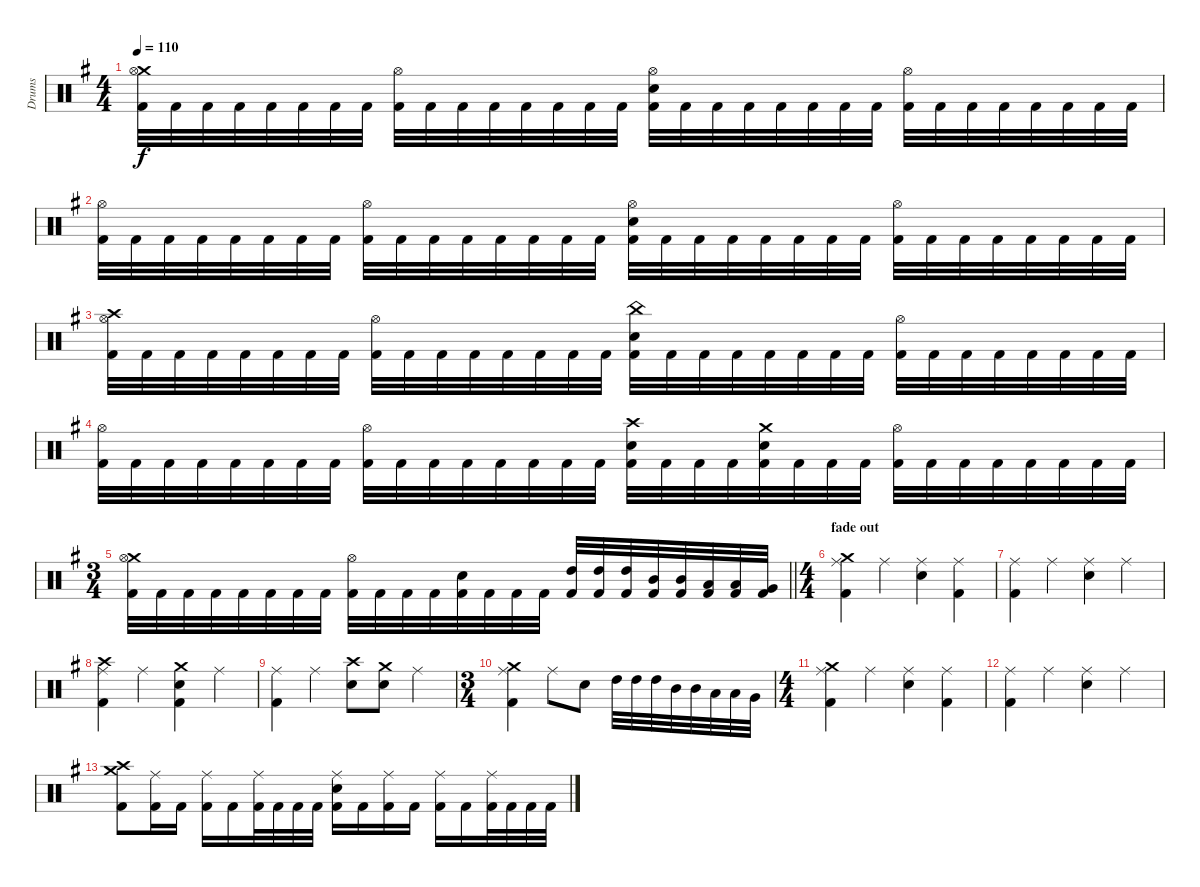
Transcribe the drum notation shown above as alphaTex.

\track ("Drums" "Drums") {instrument percussion}
\staff {score}
\articulation defaults
\ts (4 4)
\tempo 110
\clef neutral
\ks eminor
("Crash medium (hit)" "Hi-Hat (open)" "Kick (hit) 2").32{dy f} "Kick (hit) 2".32 "Kick (hit) 2".32 "Kick (hit) 2".32 "Kick (hit) 2".32 "Kick (hit) 2".32 "Kick (hit) 2".32 "Kick (hit) 2".32 ("Hi-Hat (open)" "Kick (hit) 2").32 "Kick (hit) 2".32 "Kick (hit) 2".32 "Kick (hit) 2".32 "Kick (hit) 2".32 "Kick (hit) 2".32 "Kick (hit) 2".32 "Kick (hit) 2".32 ("Hi-Hat (open)" "Electric Snare (hit)" "Kick (hit) 2").32 "Kick (hit) 2".32 "Kick (hit) 2".32 "Kick (hit) 2".32 "Kick (hit) 2".32 "Kick (hit) 2".32 "Kick (hit) 2".32 "Kick (hit) 2".32 ("Hi-Hat (open)" "Kick (hit) 2").32 "Kick (hit) 2".32 "Kick (hit) 2".32 "Kick (hit) 2".32 "Kick (hit) 2".32 "Kick (hit) 2".32 "Kick (hit) 2".32 "Kick (hit) 2".32 |
("Hi-Hat (open)" "Kick (hit) 2").32 "Kick (hit) 2".32 "Kick (hit) 2".32 "Kick (hit) 2".32 "Kick (hit) 2".32 "Kick (hit) 2".32 "Kick (hit) 2".32 "Kick (hit) 2".32 ("Hi-Hat (open)" "Kick (hit) 2").32 "Kick (hit) 2".32 "Kick (hit) 2".32 "Kick (hit) 2".32 "Kick (hit) 2".32 "Kick (hit) 2".32 "Kick (hit) 2".32 "Kick (hit) 2".32 ("Hi-Hat (open)" "Electric Snare (hit)" "Kick (hit) 2").32 "Kick (hit) 2".32 "Kick (hit) 2".32 "Kick (hit) 2".32 "Kick (hit) 2".32 "Kick (hit) 2".32 "Kick (hit) 2".32 "Kick (hit) 2".32 ("Hi-Hat (open)" "Kick (hit) 2").32 "Kick (hit) 2".32 "Kick (hit) 2".32 "Kick (hit) 2".32 "Kick (hit) 2".32 "Kick (hit) 2".32 "Kick (hit) 2".32 "Kick (hit) 2".32 |
("Crash high (hit)" "Hi-Hat (open)" "Kick (hit) 2").32 "Kick (hit) 2".32 "Kick (hit) 2".32 "Kick (hit) 2".32 "Kick (hit) 2".32 "Kick (hit) 2".32 "Kick (hit) 2".32 "Kick (hit) 2".32 ("Hi-Hat (open)" "Kick (hit) 2").32 "Kick (hit) 2".32 "Kick (hit) 2".32 "Kick (hit) 2".32 "Kick (hit) 2".32 "Kick (hit) 2".32 "Kick (hit) 2".32 "Kick (hit) 2".32 ("China (hit)" "Electric Snare (hit)" "Kick (hit) 2").32 "Kick (hit) 2".32 "Kick (hit) 2".32 "Kick (hit) 2".32 "Kick (hit) 2".32 "Kick (hit) 2".32 "Kick (hit) 2".32 "Kick (hit) 2".32 ("Hi-Hat (open)" "Kick (hit) 2").32 "Kick (hit) 2".32 "Kick (hit) 2".32 "Kick (hit) 2".32 "Kick (hit) 2".32 "Kick (hit) 2".32 "Kick (hit) 2".32 "Kick (hit) 2".32 |
("Hi-Hat (open)" "Kick (hit) 2").32 "Kick (hit) 2".32 "Kick (hit) 2".32 "Kick (hit) 2".32 "Kick (hit) 2".32 "Kick (hit) 2".32 "Kick (hit) 2".32 "Kick (hit) 2".32 ("Hi-Hat (open)" "Kick (hit) 2").32 "Kick (hit) 2".32 "Kick (hit) 2".32 "Kick (hit) 2".32 "Kick (hit) 2".32 "Kick (hit) 2".32 "Kick (hit) 2".32 "Kick (hit) 2".32 ("Crash high (hit)" "Electric Snare (hit)" "Kick (hit) 2").32 "Kick (hit) 2".32 "Kick (hit) 2".32 "Kick (hit) 2".32 ("Crash medium (hit)" "Electric Snare (hit)" "Kick (hit) 2").32 "Kick (hit) 2".32 "Kick (hit) 2".32 "Kick (hit) 2".32 ("Hi-Hat (open)" "Kick (hit) 2").32 "Kick (hit) 2".32 "Kick (hit) 2".32 "Kick (hit) 2".32 "Kick (hit) 2".32 "Kick (hit) 2".32 "Kick (hit) 2".32 "Kick (hit) 2".32 |
\ts (3 4)
\barLineRight lightlight
("Crash medium (hit)" "Hi-Hat (open)" "Kick (hit) 2").32 "Kick (hit) 2".32 "Kick (hit) 2".32 "Kick (hit) 2".32 "Kick (hit) 2".32 "Kick (hit) 2".32 "Kick (hit) 2".32 "Kick (hit) 2".32 ("Hi-Hat (open)" "Kick (hit) 2").32 "Kick (hit) 2".32 "Kick (hit) 2".32 "Kick (hit) 2".32 ("Electric Snare (hit)" "Kick (hit) 2").32 "Kick (hit) 2".32 "Kick (hit) 2".32 "Kick (hit) 2".32 ("High Tom (hit)" "Kick (hit) 2").32 ("High Tom (hit)" "Kick (hit) 2").32 ("High Tom (hit)" "Kick (hit) 2").32 ("Mid Tom (hit)" "Kick (hit) 2").32 ("Mid Tom (hit)" "Kick (hit) 2").32 ("Low Tom (hit)" "Kick (hit) 2").32 ("Low Tom (hit)" "Kick (hit) 2").32 ("Very Low Tom (hit)" "Kick (hit) 2").32 |
\ts (4 4)
\section ("" "fade out")
("Crash medium (hit)" "Ride (middle)" "Kick (hit) 2").4 "Ride (middle)".4 ("Ride (middle)" "Electric Snare (hit)").4 ("Ride (middle)" "Kick (hit) 2").4 |
("Ride (middle)" "Kick (hit) 2").4 "Ride (middle)".4 ("Ride (middle)" "Electric Snare (hit)").4 "Ride (middle)".4 |
("Crash high (hit)" "Ride (middle)" "Kick (hit) 2").4 "Ride (middle)".4 ("Crash medium (hit)" "Electric Snare (hit)" "Kick (hit) 2").4 "Ride (middle)".4 |
("Ride (middle)" "Kick (hit) 2").4 "Ride (middle)".4 ("Crash high (hit)" "Electric Snare (hit)").8 ("Crash medium (hit)" "Electric Snare (hit)").8 "Ride (middle)".4 |
\ts (3 4)
("Crash medium (hit)" "Ride (middle)" "Kick (hit) 2").4 "Ride (middle)".8 "Electric Snare (hit)".8 "High Tom (hit)".32 "High Tom (hit)".32 "High Tom (hit)".32 "Mid Tom (hit)".32 "Mid Tom (hit)".32 "Low Tom (hit)".32 "Low Tom (hit)".32 "Very Low Tom (hit)".32 |
\ts (4 4)
("Crash medium (hit)" "Ride (middle)" "Kick (hit) 2").4 "Ride (middle)".4 ("Ride (middle)" "Electric Snare (hit)").4 ("Ride (middle)" "Kick (hit) 2").4 |
("Ride (middle)" "Kick (hit) 2").4 "Ride (middle)".4 ("Ride (middle)" "Electric Snare (hit)").4 "Ride (middle)".4 |
("Crash high (hit)" "Crash medium (hit)" "Kick (hit) 2").8 ("Ride (middle)" "Kick (hit) 2").16 "Kick (hit) 2".16 ("Ride (middle)" "Kick (hit) 2").16 "Kick (hit) 2".16 ("Ride (middle)" "Kick (hit) 2").32 "Kick (hit) 2".32 "Kick (hit) 2".32 "Kick (hit) 2".32 ("Ride (middle)" "Electric Snare (hit)" "Kick (hit) 2").16 "Kick (hit) 2".16 ("Ride (middle)" "Kick (hit) 2").16 "Kick (hit) 2".16 ("Ride (middle)" "Kick (hit) 2").16 "Kick (hit) 2".16 ("Ride (middle)" "Kick (hit) 2").32 "Kick (hit) 2".32 "Kick (hit) 2".32 "Kick (hit) 2".32
